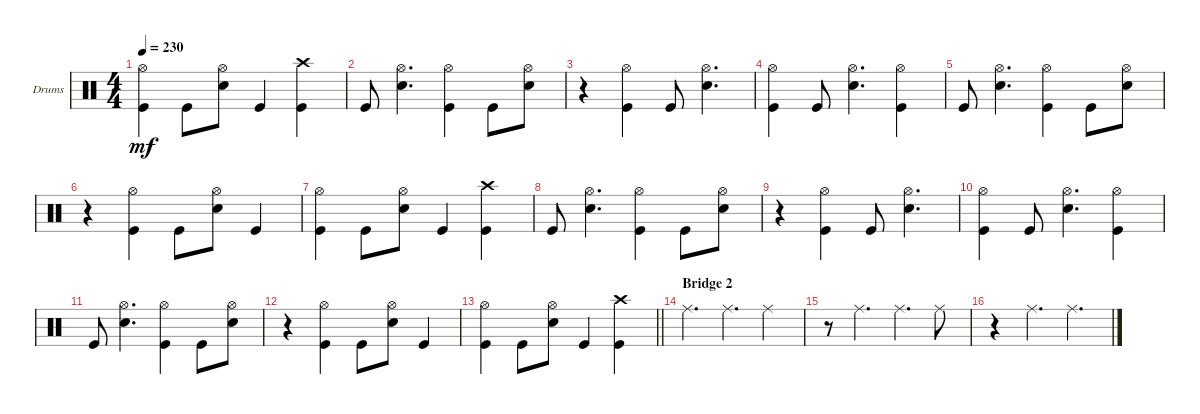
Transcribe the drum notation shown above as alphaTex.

\bracketExtendMode groupsimilarinstruments
\firstSystemTrackNameOrientation horizontal
\otherSystemsTrackNameOrientation horizontal
\track ("Drumkit" "Drums") {instrument percussion}
\staff {score}
\articulation defaults
\ts (4 4)
\tempo 230
\clef neutral
\ks c
("Hi-Hat (open)" "Kick (hit)").4{dy mf} "Kick (hit)".8 ("Hi-Hat (open)" "Snare (hit) 2").8 "Kick (hit)".4 ("Crash high (hit)" "Kick (hit)").4 |
"Kick (hit)".8 ("Hi-Hat (open)" "Snare (hit) 2").4{d} ("Hi-Hat (open)" "Kick (hit)").4 "Kick (hit)".8 ("Hi-Hat (open)" "Snare (hit) 2").8 |
r.4 ("Hi-Hat (open)" "Kick (hit)").4 "Kick (hit)".8 ("Hi-Hat (open)" "Snare (hit) 2").4{d} |
("Hi-Hat (open)" "Kick (hit)").4 "Kick (hit)".8 ("Hi-Hat (open)" "Snare (hit) 2").4{d} ("Hi-Hat (open)" "Kick (hit)").4 |
"Kick (hit)".8 ("Hi-Hat (open)" "Snare (hit) 2").4{d} ("Hi-Hat (open)" "Kick (hit)").4 "Kick (hit)".8 ("Hi-Hat (open)" "Snare (hit) 2").8 |
r.4 ("Hi-Hat (open)" "Kick (hit)").4 "Kick (hit)".8 ("Hi-Hat (open)" "Snare (hit) 2").8 "Kick (hit)".4 |
("Hi-Hat (open)" "Kick (hit)").4 "Kick (hit)".8 ("Hi-Hat (open)" "Snare (hit) 2").8 "Kick (hit)".4 ("Crash high (hit)" "Kick (hit)").4 |
"Kick (hit)".8 ("Hi-Hat (open)" "Snare (hit) 2").4{d} ("Hi-Hat (open)" "Kick (hit)").4 "Kick (hit)".8 ("Hi-Hat (open)" "Snare (hit) 2").8 |
r.4 ("Hi-Hat (open)" "Kick (hit)").4 "Kick (hit)".8 ("Hi-Hat (open)" "Snare (hit) 2").4{d} |
("Hi-Hat (open)" "Kick (hit)").4 "Kick (hit)".8 ("Hi-Hat (open)" "Snare (hit) 2").4{d} ("Hi-Hat (open)" "Kick (hit)").4 |
"Kick (hit)".8 ("Hi-Hat (open)" "Snare (hit) 2").4{d} ("Hi-Hat (open)" "Kick (hit)").4 "Kick (hit)".8 ("Hi-Hat (open)" "Snare (hit) 2").8 |
r.4 ("Hi-Hat (open)" "Kick (hit)").4 "Kick (hit)".8 ("Hi-Hat (open)" "Snare (hit) 2").8 "Kick (hit)".4 |
\barLineRight lightlight
("Hi-Hat (open)" "Kick (hit)").4 "Kick (hit)".8 ("Hi-Hat (open)" "Snare (hit) 2").8 "Kick (hit)".4 ("Crash high (hit)" "Kick (hit)").4 |
\section ("" "Bridge 2")
"Ride (middle)".4{d} "Ride (middle)".4{d} "Ride (middle)".4 |
r.8 "Ride (middle)".4{d} "Ride (middle)".4{d} "Ride (middle)".8 |
r.4 "Ride (middle)".4{d} "Ride (middle)".4{d}
